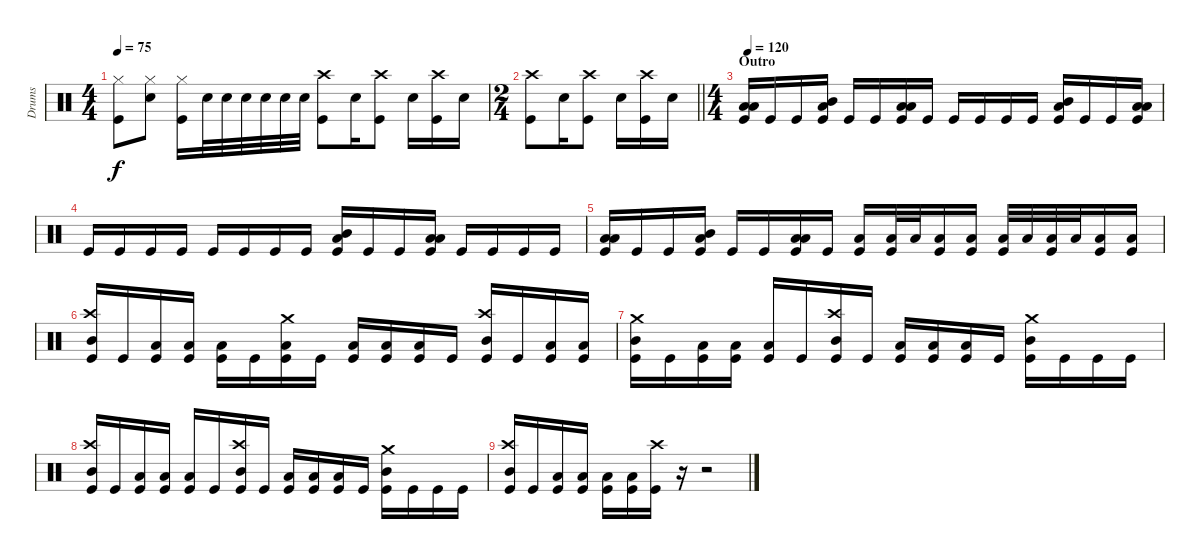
\track ("Drums" "Drums") {instrument percussion}
\staff {score}
\articulation defaults
\ts (4 4)
\tempo 75
\clef neutral
\ks c
("Hi-Hat (closed)" "Kick (hit)").8{dy f} ("Hi-Hat (closed)" "Snare (hit) 2").8 ("Hi-Hat (closed)" "Kick (hit)").16 "Snare (hit) 2".32 "Snare (hit) 2".32 "Snare (hit) 2".32 "Snare (hit) 2".32 "Snare (hit) 2".32 "Snare (hit) 2".32 ("Crash high (hit)" "Kick (hit)").8 "Snare (hit) 2".16 ("Crash high (hit)" "Kick (hit)").8 "Snare (hit) 2".16 ("Crash high (hit)" "Kick (hit)").16 "Snare (hit) 2".16 |
\ts (2 4)
\barLineRight lightlight
("Crash high (hit)" "Kick (hit)").8 "Snare (hit) 2".16 ("Crash high (hit)" "Kick (hit)").8 "Snare (hit) 2".16 ("Crash high (hit)" "Kick (hit)").16 "Snare (hit) 2".16 |
\ts (4 4)
\section ("" "Outro")
\tempo 120
("Low Tom (hit)" "Low Floor Tom (hit)" "Kick (hit)").16 "Kick (hit)".16 "Kick (hit)".16 ("Mid Tom (hit)" "Low Floor Tom (hit)" "Kick (hit)").16 "Kick (hit)".16 "Kick (hit)".16 ("Low Tom (hit)" "Low Floor Tom (hit)" "Kick (hit)").16 "Kick (hit)".16 "Kick (hit)".16 "Kick (hit)".16 "Kick (hit)".16 "Kick (hit)".16 ("Mid Tom (hit)" "Low Floor Tom (hit)" "Kick (hit)").16 "Kick (hit)".16 "Kick (hit)".16 ("Low Tom (hit)" "Low Floor Tom (hit)" "Kick (hit)").16 |
"Kick (hit)".16 "Kick (hit)".16 "Kick (hit)".16 "Kick (hit)".16 "Kick (hit)".16 "Kick (hit)".16 "Kick (hit)".16 "Kick (hit)".16 ("Mid Tom (hit)" "Low Floor Tom (hit)" "Kick (hit)").16 "Kick (hit)".16 "Kick (hit)".16 ("Low Tom (hit)" "Low Floor Tom (hit)" "Kick (hit)").16 "Kick (hit)".16 "Kick (hit)".16 "Kick (hit)".16 "Kick (hit)".16 |
("Low Tom (hit)" "Low Floor Tom (hit)" "Kick (hit)").16 "Kick (hit)".16 "Kick (hit)".16 ("Mid Tom (hit)" "Low Floor Tom (hit)" "Kick (hit)").16 "Kick (hit)".16 "Kick (hit)".16 ("Low Tom (hit)" "Low Floor Tom (hit)" "Kick (hit)").16 "Kick (hit)".16 ("Low Tom (hit)" "Kick (hit)").16 ("Low Tom (hit)" "Kick (hit)").32 "Low Tom (hit)".32 ("Low Tom (hit)" "Kick (hit)").16 ("Low Tom (hit)" "Kick (hit)").16 ("Low Floor Tom (hit)" "Kick (hit)").32 "Low Floor Tom (hit)".32 ("Low Floor Tom (hit)" "Kick (hit)").32 "Low Floor Tom (hit)".32 ("Low Floor Tom (hit)" "Kick (hit)").16 ("Low Floor Tom (hit)" "Kick (hit)").16 |
("Crash high (hit)" "Mid Tom (hit)" "Kick (hit)").16 "Kick (hit)".16 ("Low Tom (hit)" "Kick (hit)").16 ("Low Tom (hit)" "Kick (hit)").16 ("Low Floor Tom (hit)" "Kick (hit)").16 "Kick (hit)".16 ("Crash medium (hit)" "Low Tom (hit)" "Kick (hit)").16 "Kick (hit)".16 ("Low Floor Tom (hit)" "Kick (hit)").16 ("Low Floor Tom (hit)" "Kick (hit)").16 ("Low Floor Tom (hit)" "Kick (hit)").16 "Kick (hit)".16 ("Crash high (hit)" "Mid Tom (hit)" "Kick (hit)").16 "Kick (hit)".16 ("Low Tom (hit)" "Kick (hit)").16 ("Low Tom (hit)" "Kick (hit)").16 |
("Crash medium (hit)" "Mid Tom (hit)" "Kick (hit)").16 "Kick (hit)".16 ("Low Tom (hit)" "Kick (hit)").16 ("Low Tom (hit)" "Kick (hit)").16 ("Low Floor Tom (hit)" "Kick (hit)").16 "Kick (hit)".16 ("Crash high (hit)" "Mid Tom (hit)" "Kick (hit)").16 "Kick (hit)".16 ("Low Floor Tom (hit)" "Kick (hit)").16 ("Low Floor Tom (hit)" "Kick (hit)").16 ("Low Floor Tom (hit)" "Kick (hit)").16 "Kick (hit)".16 ("Crash medium (hit)" "Mid Tom (hit)" "Kick (hit)").16 "Kick (hit)".16 "Kick (hit)".16 "Kick (hit)".16 |
("Crash high (hit)" "Mid Tom (hit)" "Kick (hit)").16 "Kick (hit)".16 ("Low Tom (hit)" "Kick (hit)").16 ("Low Tom (hit)" "Kick (hit)").16 ("Low Floor Tom (hit)" "Kick (hit)").16 "Kick (hit)".16 ("Crash high (hit)" "Mid Tom (hit)" "Kick (hit)").16 "Kick (hit)".16 ("Low Floor Tom (hit)" "Kick (hit)").16 ("Low Floor Tom (hit)" "Kick (hit)").16 ("Low Floor Tom (hit)" "Kick (hit)").16 "Kick (hit)".16 ("Crash medium (hit)" "Mid Tom (hit)" "Kick (hit)").16 "Kick (hit)".16 "Kick (hit)".16 "Kick (hit)".16 |
("Crash high (hit)" "Mid Tom (hit)" "Kick (hit)").16 "Kick (hit)".16 ("Low Tom (hit)" "Kick (hit)").16 ("Low Tom (hit)" "Kick (hit)").16 ("Low Floor Tom (hit)" "Kick (hit)").16 ("Low Floor Tom (hit)" "Kick (hit)").16 ("Crash high (hit)" "Kick (hit)").16 r.16 r.2
